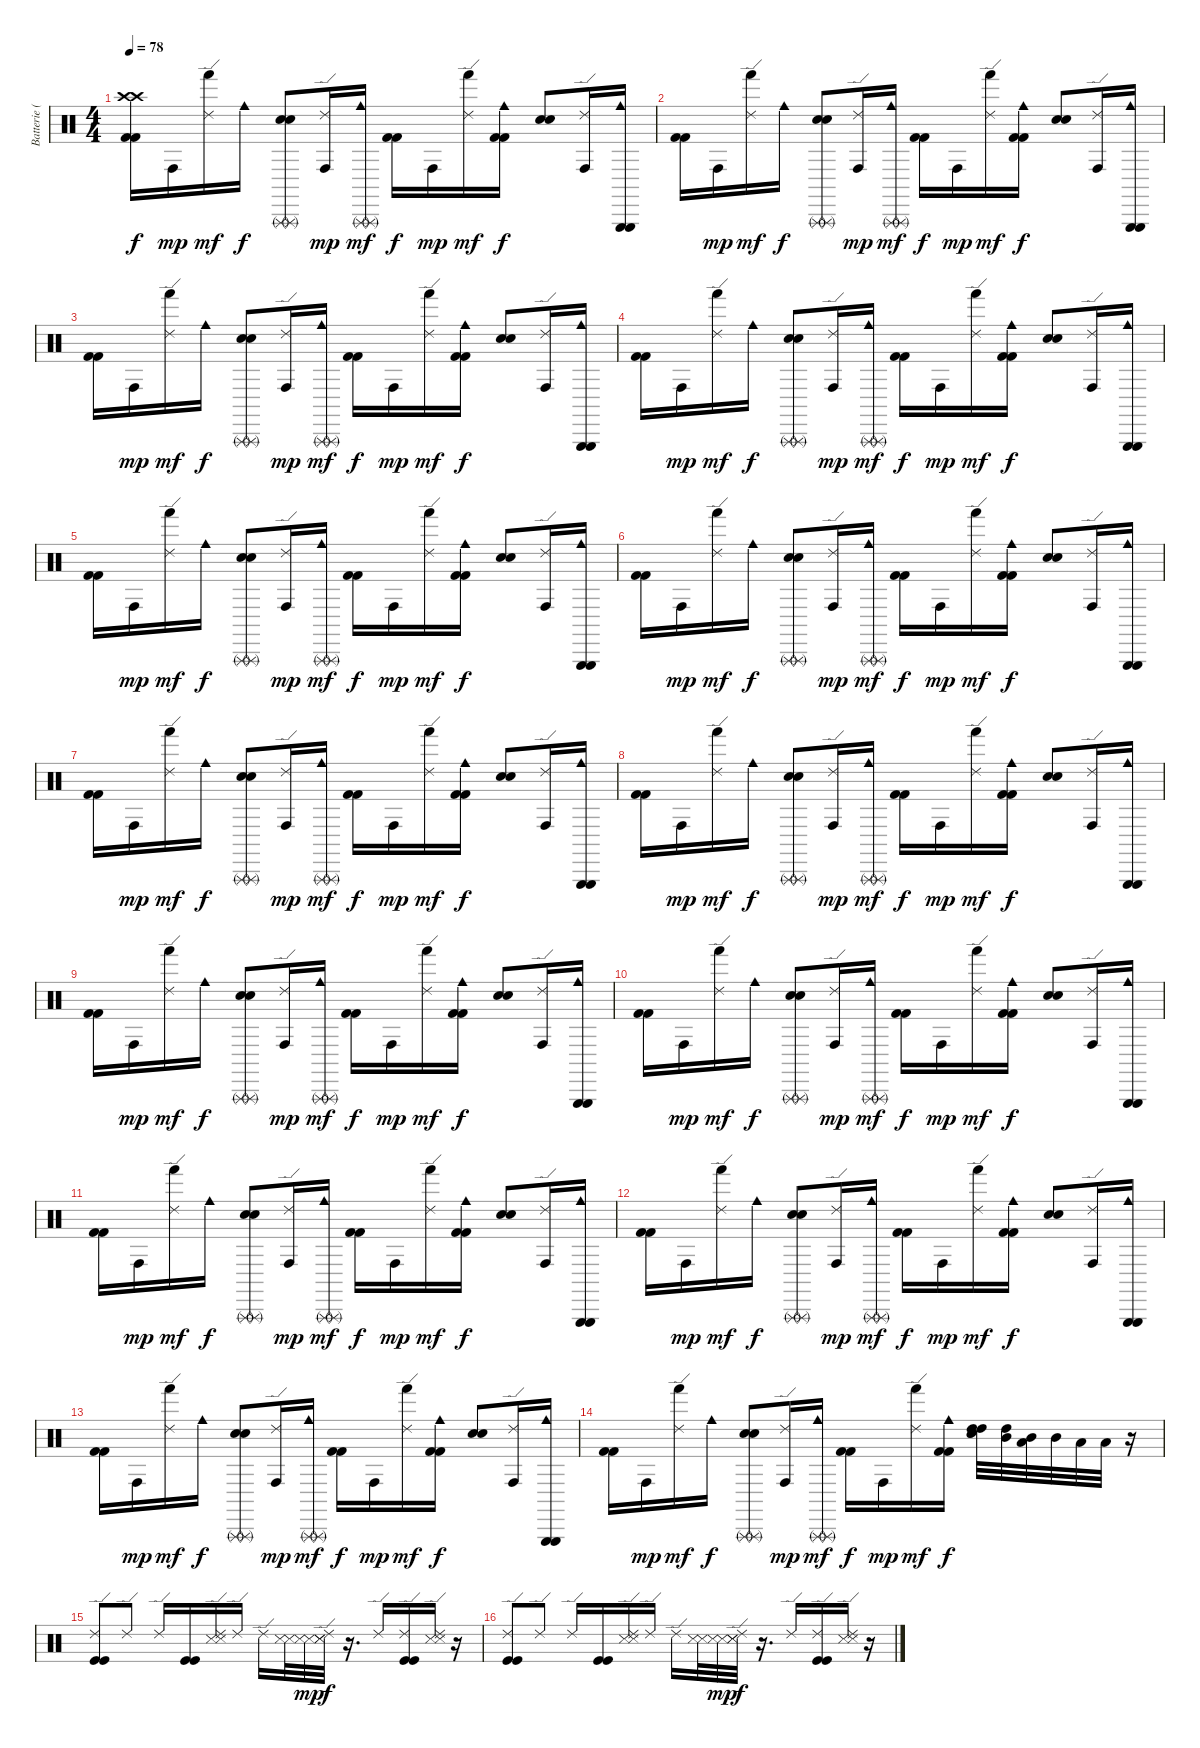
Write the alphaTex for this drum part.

\track ("Batterie ( Raphaël )" "Batterie (") {instrument percussion}
\staff {score}
\articulation defaults
\ts (4 4)
\tempo 78
\clef neutral
\ks c
("Crash high (hit)" "Crash high (hit)" "Kick (hit) 2" "Kick (hit) 2").16{dy f} "Conga high (hit)".16{dy mp} ("Ride (edge) 2" "Hand (hit)").16{dy mf} "Cowbell medium (hit)".16{dy f} ("Triangle (rnute)" "Triangle (rnute)" "Electric Snare (hit)" "Electric Snare (hit)").8 ("Ride (edge) 2" "Conga high (hit)").16{dy mp} ("Triangle (rnute)" "Triangle (rnute)" "Cowbell medium (hit)").16{dy mf} ("Kick (hit) 2" "Kick (hit) 2").16{dy f} "Conga high (hit)".16{dy mp} ("Ride (edge) 2" "Hand (hit)").16{dy mf} ("Cowbell medium (hit)" "Kick (hit) 2" "Kick (hit) 2").16{dy f} ("Electric Snare (hit)" "Electric Snare (hit)").8 ("Ride (edge) 2" "Conga high (hit)").16 ("Triangle (hit)" "Triangle (hit)" "Cowbell medium (hit)").16 |
("Kick (hit) 2" "Kick (hit) 2").16 "Conga high (hit)".16{dy mp} ("Ride (edge) 2" "Hand (hit)").16{dy mf} "Cowbell medium (hit)".16{dy f} ("Triangle (rnute)" "Triangle (rnute)" "Electric Snare (hit)" "Electric Snare (hit)").8 ("Ride (edge) 2" "Conga high (hit)").16{dy mp} ("Triangle (rnute)" "Triangle (rnute)" "Cowbell medium (hit)").16{dy mf} ("Kick (hit) 2" "Kick (hit) 2").16{dy f} "Conga high (hit)".16{dy mp} ("Ride (edge) 2" "Hand (hit)").16{dy mf} ("Cowbell medium (hit)" "Kick (hit) 2" "Kick (hit) 2").16{dy f} ("Electric Snare (hit)" "Electric Snare (hit)").8 ("Ride (edge) 2" "Conga high (hit)").16 ("Triangle (hit)" "Triangle (hit)" "Cowbell medium (hit)").16 |
("Kick (hit) 2" "Kick (hit) 2").16 "Conga high (hit)".16{dy mp} ("Ride (edge) 2" "Hand (hit)").16{dy mf} "Cowbell medium (hit)".16{dy f} ("Triangle (rnute)" "Triangle (rnute)" "Electric Snare (hit)" "Electric Snare (hit)").8 ("Ride (edge) 2" "Conga high (hit)").16{dy mp} ("Triangle (rnute)" "Triangle (rnute)" "Cowbell medium (hit)").16{dy mf} ("Kick (hit) 2" "Kick (hit) 2").16{dy f} "Conga high (hit)".16{dy mp} ("Ride (edge) 2" "Hand (hit)").16{dy mf} ("Cowbell medium (hit)" "Kick (hit) 2" "Kick (hit) 2").16{dy f} ("Electric Snare (hit)" "Electric Snare (hit)").8 ("Ride (edge) 2" "Conga high (hit)").16 ("Triangle (hit)" "Triangle (hit)" "Cowbell medium (hit)").16 |
("Kick (hit) 2" "Kick (hit) 2").16 "Conga high (hit)".16{dy mp} ("Ride (edge) 2" "Hand (hit)").16{dy mf} "Cowbell medium (hit)".16{dy f} ("Triangle (rnute)" "Triangle (rnute)" "Electric Snare (hit)" "Electric Snare (hit)").8 ("Ride (edge) 2" "Conga high (hit)").16{dy mp} ("Triangle (rnute)" "Triangle (rnute)" "Cowbell medium (hit)").16{dy mf} ("Kick (hit) 2" "Kick (hit) 2").16{dy f} "Conga high (hit)".16{dy mp} ("Ride (edge) 2" "Hand (hit)").16{dy mf} ("Cowbell medium (hit)" "Kick (hit) 2" "Kick (hit) 2").16{dy f} ("Electric Snare (hit)" "Electric Snare (hit)").8 ("Ride (edge) 2" "Conga high (hit)").16 ("Triangle (hit)" "Triangle (hit)" "Cowbell medium (hit)").16 |
("Kick (hit) 2" "Kick (hit) 2").16 "Conga high (hit)".16{dy mp} ("Ride (edge) 2" "Hand (hit)").16{dy mf} "Cowbell medium (hit)".16{dy f} ("Triangle (rnute)" "Triangle (rnute)" "Electric Snare (hit)" "Electric Snare (hit)").8 ("Ride (edge) 2" "Conga high (hit)").16{dy mp} ("Triangle (rnute)" "Triangle (rnute)" "Cowbell medium (hit)").16{dy mf} ("Kick (hit) 2" "Kick (hit) 2").16{dy f} "Conga high (hit)".16{dy mp} ("Ride (edge) 2" "Hand (hit)").16{dy mf} ("Cowbell medium (hit)" "Kick (hit) 2" "Kick (hit) 2").16{dy f} ("Electric Snare (hit)" "Electric Snare (hit)").8 ("Ride (edge) 2" "Conga high (hit)").16 ("Triangle (hit)" "Triangle (hit)" "Cowbell medium (hit)").16 |
("Kick (hit) 2" "Kick (hit) 2").16 "Conga high (hit)".16{dy mp} ("Ride (edge) 2" "Hand (hit)").16{dy mf} "Cowbell medium (hit)".16{dy f} ("Triangle (rnute)" "Triangle (rnute)" "Electric Snare (hit)" "Electric Snare (hit)").8 ("Ride (edge) 2" "Conga high (hit)").16{dy mp} ("Triangle (rnute)" "Triangle (rnute)" "Cowbell medium (hit)").16{dy mf} ("Kick (hit) 2" "Kick (hit) 2").16{dy f} "Conga high (hit)".16{dy mp} ("Ride (edge) 2" "Hand (hit)").16{dy mf} ("Cowbell medium (hit)" "Kick (hit) 2" "Kick (hit) 2").16{dy f} ("Electric Snare (hit)" "Electric Snare (hit)").8 ("Ride (edge) 2" "Conga high (hit)").16 ("Triangle (hit)" "Triangle (hit)" "Cowbell medium (hit)").16 |
("Kick (hit) 2" "Kick (hit) 2").16 "Conga high (hit)".16{dy mp} ("Ride (edge) 2" "Hand (hit)").16{dy mf} "Cowbell medium (hit)".16{dy f} ("Triangle (rnute)" "Triangle (rnute)" "Electric Snare (hit)" "Electric Snare (hit)").8 ("Ride (edge) 2" "Conga high (hit)").16{dy mp} ("Triangle (rnute)" "Triangle (rnute)" "Cowbell medium (hit)").16{dy mf} ("Kick (hit) 2" "Kick (hit) 2").16{dy f} "Conga high (hit)".16{dy mp} ("Ride (edge) 2" "Hand (hit)").16{dy mf} ("Cowbell medium (hit)" "Kick (hit) 2" "Kick (hit) 2").16{dy f} ("Electric Snare (hit)" "Electric Snare (hit)").8 ("Ride (edge) 2" "Conga high (hit)").16 ("Triangle (hit)" "Triangle (hit)" "Cowbell medium (hit)").16 |
("Kick (hit) 2" "Kick (hit) 2").16 "Conga high (hit)".16{dy mp} ("Ride (edge) 2" "Hand (hit)").16{dy mf} "Cowbell medium (hit)".16{dy f} ("Triangle (rnute)" "Triangle (rnute)" "Electric Snare (hit)" "Electric Snare (hit)").8 ("Ride (edge) 2" "Conga high (hit)").16{dy mp} ("Triangle (rnute)" "Triangle (rnute)" "Cowbell medium (hit)").16{dy mf} ("Kick (hit) 2" "Kick (hit) 2").16{dy f} "Conga high (hit)".16{dy mp} ("Ride (edge) 2" "Hand (hit)").16{dy mf} ("Cowbell medium (hit)" "Kick (hit) 2" "Kick (hit) 2").16{dy f} ("Electric Snare (hit)" "Electric Snare (hit)").8 ("Ride (edge) 2" "Conga high (hit)").16 ("Triangle (hit)" "Triangle (hit)" "Cowbell medium (hit)").16 |
("Kick (hit) 2" "Kick (hit) 2").16 "Conga high (hit)".16{dy mp} ("Ride (edge) 2" "Hand (hit)").16{dy mf} "Cowbell medium (hit)".16{dy f} ("Triangle (rnute)" "Triangle (rnute)" "Electric Snare (hit)" "Electric Snare (hit)").8 ("Ride (edge) 2" "Conga high (hit)").16{dy mp} ("Triangle (rnute)" "Triangle (rnute)" "Cowbell medium (hit)").16{dy mf} ("Kick (hit) 2" "Kick (hit) 2").16{dy f} "Conga high (hit)".16{dy mp} ("Ride (edge) 2" "Hand (hit)").16{dy mf} ("Cowbell medium (hit)" "Kick (hit) 2" "Kick (hit) 2").16{dy f} ("Electric Snare (hit)" "Electric Snare (hit)").8 ("Ride (edge) 2" "Conga high (hit)").16 ("Triangle (hit)" "Triangle (hit)" "Cowbell medium (hit)").16 |
("Kick (hit) 2" "Kick (hit) 2").16 "Conga high (hit)".16{dy mp} ("Ride (edge) 2" "Hand (hit)").16{dy mf} "Cowbell medium (hit)".16{dy f} ("Triangle (rnute)" "Triangle (rnute)" "Electric Snare (hit)" "Electric Snare (hit)").8 ("Ride (edge) 2" "Conga high (hit)").16{dy mp} ("Triangle (rnute)" "Triangle (rnute)" "Cowbell medium (hit)").16{dy mf} ("Kick (hit) 2" "Kick (hit) 2").16{dy f} "Conga high (hit)".16{dy mp} ("Ride (edge) 2" "Hand (hit)").16{dy mf} ("Cowbell medium (hit)" "Kick (hit) 2" "Kick (hit) 2").16{dy f} ("Electric Snare (hit)" "Electric Snare (hit)").8 ("Ride (edge) 2" "Conga high (hit)").16 ("Triangle (hit)" "Triangle (hit)" "Cowbell medium (hit)").16 |
("Kick (hit) 2" "Kick (hit) 2").16 "Conga high (hit)".16{dy mp} ("Ride (edge) 2" "Hand (hit)").16{dy mf} "Cowbell medium (hit)".16{dy f} ("Triangle (rnute)" "Triangle (rnute)" "Electric Snare (hit)" "Electric Snare (hit)").8 ("Ride (edge) 2" "Conga high (hit)").16{dy mp} ("Triangle (rnute)" "Triangle (rnute)" "Cowbell medium (hit)").16{dy mf} ("Kick (hit) 2" "Kick (hit) 2").16{dy f} "Conga high (hit)".16{dy mp} ("Ride (edge) 2" "Hand (hit)").16{dy mf} ("Cowbell medium (hit)" "Kick (hit) 2" "Kick (hit) 2").16{dy f} ("Electric Snare (hit)" "Electric Snare (hit)").8 ("Ride (edge) 2" "Conga high (hit)").16 ("Triangle (hit)" "Triangle (hit)" "Cowbell medium (hit)").16 |
("Kick (hit) 2" "Kick (hit) 2").16 "Conga high (hit)".16{dy mp} ("Ride (edge) 2" "Hand (hit)").16{dy mf} "Cowbell medium (hit)".16{dy f} ("Triangle (rnute)" "Triangle (rnute)" "Electric Snare (hit)" "Electric Snare (hit)").8 ("Ride (edge) 2" "Conga high (hit)").16{dy mp} ("Triangle (rnute)" "Triangle (rnute)" "Cowbell medium (hit)").16{dy mf} ("Kick (hit) 2" "Kick (hit) 2").16{dy f} "Conga high (hit)".16{dy mp} ("Ride (edge) 2" "Hand (hit)").16{dy mf} ("Cowbell medium (hit)" "Kick (hit) 2" "Kick (hit) 2").16{dy f} ("Electric Snare (hit)" "Electric Snare (hit)").8 ("Ride (edge) 2" "Conga high (hit)").16 ("Triangle (hit)" "Triangle (hit)" "Cowbell medium (hit)").16 |
("Kick (hit) 2" "Kick (hit) 2").16 "Conga high (hit)".16{dy mp} ("Ride (edge) 2" "Hand (hit)").16{dy mf} "Cowbell medium (hit)".16{dy f} ("Triangle (rnute)" "Triangle (rnute)" "Electric Snare (hit)" "Electric Snare (hit)").8 ("Ride (edge) 2" "Conga high (hit)").16{dy mp} ("Triangle (rnute)" "Triangle (rnute)" "Cowbell medium (hit)").16{dy mf} ("Kick (hit) 2" "Kick (hit) 2").16{dy f} "Conga high (hit)".16{dy mp} ("Ride (edge) 2" "Hand (hit)").16{dy mf} ("Cowbell medium (hit)" "Kick (hit) 2" "Kick (hit) 2").16{dy f} ("Electric Snare (hit)" "Electric Snare (hit)").8 ("Ride (edge) 2" "Conga high (hit)").16 ("Triangle (hit)" "Triangle (hit)" "Cowbell medium (hit)").16 |
("Kick (hit) 2" "Kick (hit) 2").16 "Conga high (hit)".16{dy mp} ("Ride (edge) 2" "Hand (hit)").16{dy mf} "Cowbell medium (hit)".16{dy f} ("Triangle (rnute)" "Triangle (rnute)" "Electric Snare (hit)" "Electric Snare (hit)").8 ("Ride (edge) 2" "Conga high (hit)").16{dy mp} ("Triangle (rnute)" "Triangle (rnute)" "Cowbell medium (hit)").16{dy mf} ("Kick (hit) 2" "Kick (hit) 2").16{dy f} "Conga high (hit)".16{dy mp} ("Ride (edge) 2" "Hand (hit)").16{dy mf} ("Cowbell medium (hit)" "Kick (hit) 2" "Kick (hit) 2").16{dy f} ("High Tom (hit)" "High Tom (hit)" "Electric Snare (hit)" "Electric Snare (hit)").32 ("Mid Tom (hit)" "High Tom (hit)").32 ("Low Tom (hit)" "Mid Tom (hit)").32 "Mid Tom (hit)".32 "Low Tom (hit)".32 "Low Tom (hit)".32 r.16 |
("Ride (edge) 2" "Kick (hit)" "Kick (hit)").8 "Ride (edge) 2".8 "Ride (edge) 2".16 ("Kick (hit)" "Kick (hit)").16 ("Ride (edge) 2" "Snare (side stick) 3" "Snare (side stick) 3").16 "Ride (edge) 2".16 "Ride (edge) 2".16 ("Snare (side stick) 3" "Snare (side stick) 3").32 ("Snare (side stick) 3" "Snare (side stick) 3").32{dy mp} ("Ride (edge) 2" "Snare (side stick) 3" "Snare (side stick) 3").32{dy f} r.16{d} "Ride (edge) 2".16 ("Ride (edge) 2" "Kick (hit)" "Kick (hit)").16 ("Ride (edge) 2" "Snare (side stick) 3" "Snare (side stick) 3").16 r.16 |
("Ride (edge) 2" "Kick (hit)" "Kick (hit)").8 "Ride (edge) 2".8 "Ride (edge) 2".16 ("Kick (hit)" "Kick (hit)").16 ("Ride (edge) 2" "Snare (side stick) 3" "Snare (side stick) 3").16 "Ride (edge) 2".16 "Ride (edge) 2".16 ("Snare (side stick) 3" "Snare (side stick) 3").32 ("Snare (side stick) 3" "Snare (side stick) 3").32{dy mp} ("Ride (edge) 2" "Snare (side stick) 3" "Snare (side stick) 3").32{dy f} r.16{d} "Ride (edge) 2".16 ("Ride (edge) 2" "Kick (hit)" "Kick (hit)").16 ("Ride (edge) 2" "Snare (side stick) 3" "Snare (side stick) 3").16 r.16
